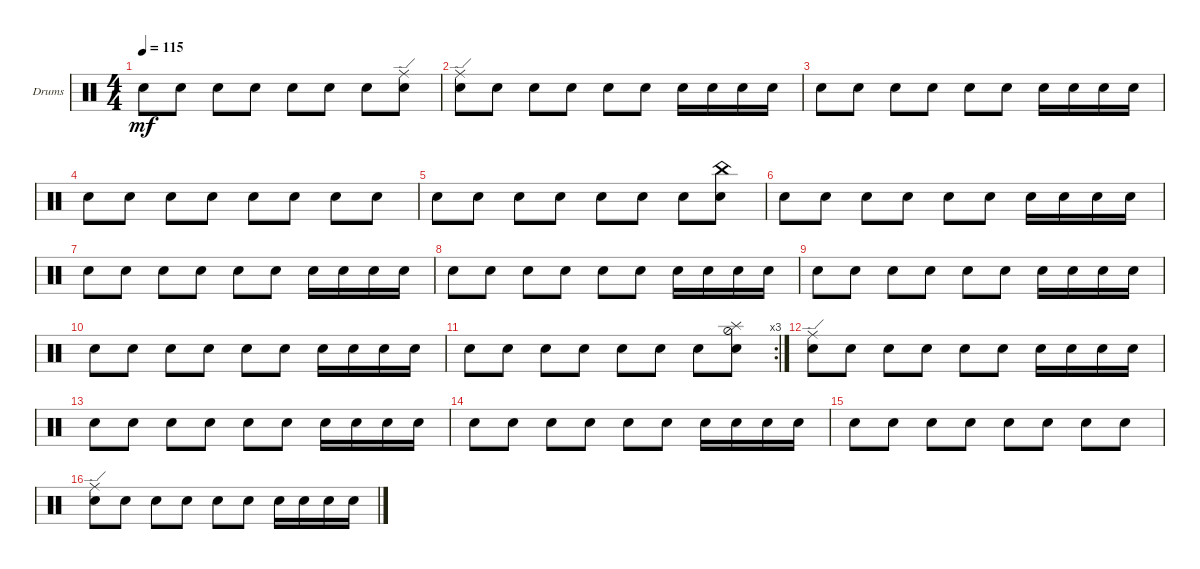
\defaultSystemsLayout 4
\bracketExtendMode groupsimilarinstruments
\firstSystemTrackNameOrientation horizontal
\otherSystemsTrackNameOrientation horizontal
\track ("Drumkit" "Drums") {instrument percussion}
\staff {score}
\articulation defaults
\ts (4 4)
\tempo 115
\clef neutral
\ks c "Snare (hit) 2".8{dy mf} "Snare (hit) 2".8 "Snare (hit) 2".8 "Snare (hit) 2".8 "Snare (hit) 2".8 "Snare (hit) 2".8 "Snare (hit) 2".8
("Snare (hit) 2" "Ride (edge)").8 |
("Snare (hit) 2" "Ride (edge)").8 "Snare (hit) 2".8 "Snare (hit) 2".8 "Snare (hit) 2".8 "Snare (hit) 2".8 "Snare (hit) 2".8 "Snare (hit) 2".16 "Snare (hit) 2".16 "Snare (hit) 2".16 "Snare (hit) 2".16 |
"Snare (hit) 2".8 "Snare (hit) 2".8 "Snare (hit) 2".8 "Snare (hit) 2".8 "Snare (hit) 2".8 "Snare (hit) 2".8 "Snare (hit) 2".16 "Snare (hit) 2".16 "Snare (hit) 2".16 "Snare (hit) 2".16 |
"Snare (hit) 2".8 "Snare (hit) 2".8 "Snare (hit) 2".8 "Snare (hit) 2".8 "Snare (hit) 2".8 "Snare (hit) 2".8 "Snare (hit) 2".8 "Snare (hit) 2".8 |
"Snare (hit) 2".8 "Snare (hit) 2".8 "Snare (hit) 2".8 "Snare (hit) 2".8 "Snare (hit) 2".8 "Snare (hit) 2".8 "Snare (hit) 2".8 ("Snare (hit) 2" "China (hit)").8 |
"Snare (hit) 2".8 "Snare (hit) 2".8 "Snare (hit) 2".8 "Snare (hit) 2".8 "Snare (hit) 2".8 "Snare (hit) 2".8 "Snare (hit) 2".16 "Snare (hit) 2".16 "Snare (hit) 2".16 "Snare (hit) 2".16 |
"Snare (hit) 2".8 "Snare (hit) 2".8 "Snare (hit) 2".8 "Snare (hit) 2".8 "Snare (hit) 2".8 "Snare (hit) 2".8 "Snare (hit) 2".16 "Snare (hit) 2".16 "Snare (hit) 2".16 "Snare (hit) 2".16 |
"Snare (hit) 2".8 "Snare (hit) 2".8 "Snare (hit) 2".8 "Snare (hit) 2".8 "Snare (hit) 2".8 "Snare (hit) 2".8 "Snare (hit) 2".16 "Snare (hit) 2".16 "Snare (hit) 2".16 "Snare (hit) 2".16 |
"Snare (hit) 2".8 "Snare (hit) 2".8 "Snare (hit) 2".8 "Snare (hit) 2".8 "Snare (hit) 2".8 "Snare (hit) 2".8 "Snare (hit) 2".16 "Snare (hit) 2".16 "Snare (hit) 2".16 "Snare (hit) 2".16 |
"Snare (hit) 2".8 "Snare (hit) 2".8 "Snare (hit) 2".8 "Snare (hit) 2".8 "Snare (hit) 2".8 "Snare (hit) 2".8 "Snare (hit) 2".16 "Snare (hit) 2".16 "Snare (hit) 2".16 "Snare (hit) 2".16 |
\rc 3 "Snare (hit) 2".8 "Snare (hit) 2".8 "Snare (hit) 2".8 "Snare (hit) 2".8 "Snare (hit) 2".8 "Snare (hit) 2".8 "Snare (hit) 2".8
("Snare (hit) 2" "Splash (hit)" "Hi-Hat (half)").8 |
("Snare (hit) 2" "Ride (edge)").8 "Snare (hit) 2".8 "Snare (hit) 2".8 "Snare (hit) 2".8 "Snare (hit) 2".8 "Snare (hit) 2".8 "Snare (hit) 2".16 "Snare (hit) 2".16 "Snare (hit) 2".16 "Snare (hit) 2".16 |
"Snare (hit) 2".8 "Snare (hit) 2".8 "Snare (hit) 2".8 "Snare (hit) 2".8 "Snare (hit) 2".8 "Snare (hit) 2".8 "Snare (hit) 2".16 "Snare (hit) 2".16 "Snare (hit) 2".16 "Snare (hit) 2".16 |
"Snare (hit) 2".8 "Snare (hit) 2".8 "Snare (hit) 2".8 "Snare (hit) 2".8 "Snare (hit) 2".8 "Snare (hit) 2".8 "Snare (hit) 2".16 "Snare (hit) 2".16 "Snare (hit) 2".16 "Snare (hit) 2".16 |
"Snare (hit) 2".8 "Snare (hit) 2".8 "Snare (hit) 2".8 "Snare (hit) 2".8 "Snare (hit) 2".8 "Snare (hit) 2".8 "Snare (hit) 2".8 "Snare (hit) 2".8 |
("Ride (edge)" "Snare (hit) 2").8 "Snare (hit) 2".8 "Snare (hit) 2".8 "Snare (hit) 2".8 "Snare (hit) 2".8 "Snare (hit) 2".8 "Snare (hit) 2".16 "Snare (hit) 2".16 "Snare (hit) 2".16 "Snare (hit) 2".16
